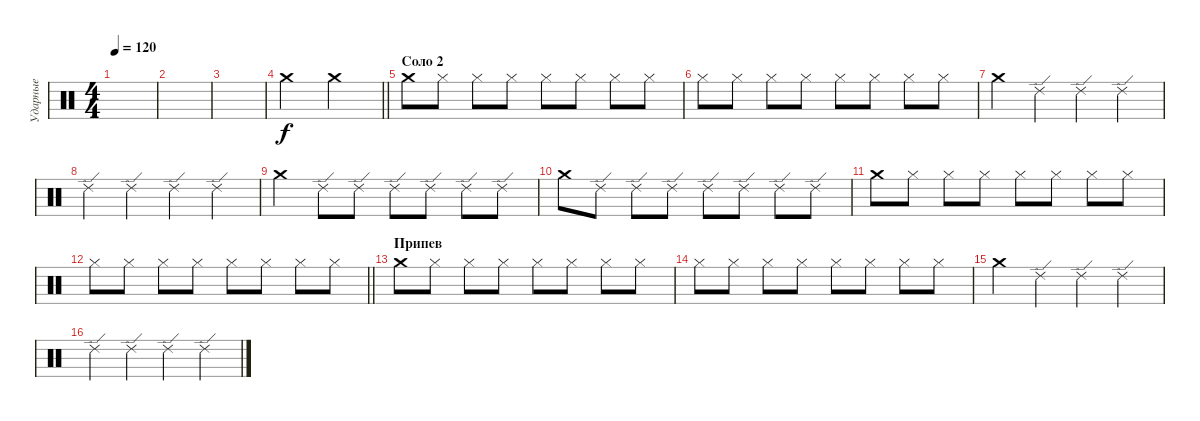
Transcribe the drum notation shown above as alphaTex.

\track ("Ударные" "Ударные") {instrument percussion}
\staff {score}
\articulation defaults
\ts (4 4)
\tempo 120
\clef neutral
\ks c
|
|
|
\barLineRight lightlight "Crash medium (hit)".2 "Crash medium (hit)".2
|
\section ("" "Соло 2")
"Crash medium (hit)".8 "Hi-Hat (closed)".8 "Hi-Hat (closed)".8 "Hi-Hat (closed)".8 "Hi-Hat (closed)".8 "Hi-Hat (closed)".8 "Hi-Hat (closed)".8 "Hi-Hat (closed)".8 |
"Hi-Hat (closed)".8 "Hi-Hat (closed)".8 "Hi-Hat (closed)".8 "Hi-Hat (closed)".8 "Hi-Hat (closed)".8 "Hi-Hat (closed)".8 "Hi-Hat (closed)".8 "Hi-Hat (closed)".8 |
"Crash medium (hit)".4 "Ride (edge) 2".4 "Ride (edge) 2".4 "Ride (edge) 2".4 |
"Ride (edge) 2".4 "Ride (edge) 2".4 "Ride (edge) 2".4 "Ride (edge) 2".4 |
"Crash medium (hit)".4 "Ride (edge) 2".8 "Ride (edge) 2".8 "Ride (edge) 2".8 "Ride (edge) 2".8 "Ride (edge) 2".8 "Ride (edge) 2".8 |
"Crash medium (hit)".8 "Ride (edge) 2".8 "Ride (edge) 2".8 "Ride (edge) 2".8 "Ride (edge) 2".8 "Ride (edge) 2".8 "Ride (edge) 2".8 "Ride (edge) 2".8 |
"Crash medium (hit)".8 "Hi-Hat (closed)".8 "Hi-Hat (closed)".8 "Hi-Hat (closed)".8 "Hi-Hat (closed)".8 "Hi-Hat (closed)".8 "Hi-Hat (closed)".8 "Hi-Hat (closed)".8 |
\barLineRight lightlight "Hi-Hat (closed)".8 "Hi-Hat (closed)".8 "Hi-Hat (closed)".8 "Hi-Hat (closed)".8 "Hi-Hat (closed)".8 "Hi-Hat (closed)".8 "Hi-Hat (closed)".8 "Hi-Hat (closed)".8
|
\section ("" "Припев")
"Crash medium (hit)".8 "Hi-Hat (closed)".8 "Hi-Hat (closed)".8 "Hi-Hat (closed)".8 "Hi-Hat (closed)".8 "Hi-Hat (closed)".8 "Hi-Hat (closed)".8 "Hi-Hat (closed)".8 |
"Hi-Hat (closed)".8 "Hi-Hat (closed)".8 "Hi-Hat (closed)".8 "Hi-Hat (closed)".8 "Hi-Hat (closed)".8 "Hi-Hat (closed)".8 "Hi-Hat (closed)".8 "Hi-Hat (closed)".8 |
"Crash medium (hit)".4 "Ride (edge) 2".4 "Ride (edge) 2".4 "Ride (edge) 2".4 |
"Ride (edge) 2".4 "Ride (edge) 2".4 "Ride (edge) 2".4 "Ride (edge) 2".4
